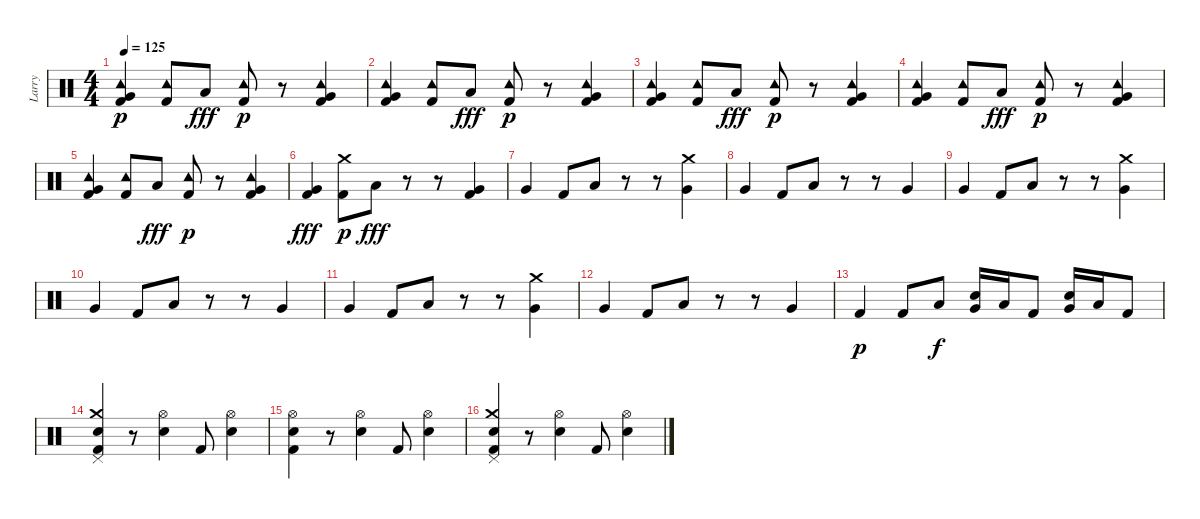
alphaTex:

\track ("Larry" "Larry") {instrument percussion}
\staff {score}
\articulation defaults
\ts (4 4)
\tempo 125
\clef neutral
\ks c
("Kick (hit) 2" "Very Low Tom (hit)" "Tambourine (hit)").4{dy p} ("Kick (hit) 2" "Tambourine (hit)").8 "Low Tom (hit)".8{dy fff} ("Kick (hit) 2" "Tambourine (hit)").8{dy p} r.8 ("Kick (hit) 2" "Very Low Tom (hit)" "Tambourine (hit)").4 |
("Kick (hit) 2" "Very Low Tom (hit)" "Tambourine (hit)").4 ("Kick (hit) 2" "Tambourine (hit)").8 "Low Tom (hit)".8{dy fff} ("Kick (hit) 2" "Tambourine (hit)").8{dy p} r.8 ("Kick (hit) 2" "Very Low Tom (hit)" "Tambourine (hit)").4 |
("Kick (hit) 2" "Very Low Tom (hit)" "Tambourine (hit)").4 ("Kick (hit) 2" "Tambourine (hit)").8 "Low Tom (hit)".8{dy fff} ("Kick (hit) 2" "Tambourine (hit)").8{dy p} r.8 ("Kick (hit) 2" "Very Low Tom (hit)" "Tambourine (hit)").4 |
("Kick (hit) 2" "Very Low Tom (hit)" "Tambourine (hit)").4 ("Kick (hit) 2" "Tambourine (hit)").8 "Low Tom (hit)".8{dy fff} ("Kick (hit) 2" "Tambourine (hit)").8{dy p} r.8 ("Kick (hit) 2" "Very Low Tom (hit)" "Tambourine (hit)").4 |
("Kick (hit) 2" "Very Low Tom (hit)" "Tambourine (hit)").4 ("Kick (hit) 2" "Tambourine (hit)").8 "Low Tom (hit)".8{dy fff} ("Kick (hit) 2" "Tambourine (hit)").8{dy p} r.8 ("Kick (hit) 2" "Very Low Tom (hit)" "Tambourine (hit)").4 |
("Kick (hit) 2" "Very Low Tom (hit)").4{dy fff} ("Crash medium (hit)" "Kick (hit) 2").8{dy p} "Low Tom (hit)".8{dy fff} r.8 r.8 ("Kick (hit) 2" "Very Low Tom (hit)").4 |
"Very Low Tom (hit)".4 "Kick (hit) 2".8 "Low Tom (hit)".8 r.8 r.8 ("Crash medium (hit)" "Very Low Tom (hit)").4 |
"Very Low Tom (hit)".4 "Kick (hit) 2".8 "Low Tom (hit)".8 r.8 r.8 "Very Low Tom (hit)".4 |
"Very Low Tom (hit)".4 "Kick (hit) 2".8 "Low Tom (hit)".8 r.8 r.8 ("Crash medium (hit)" "Very Low Tom (hit)").4 |
"Very Low Tom (hit)".4 "Kick (hit) 2".8 "Low Tom (hit)".8 r.8 r.8 "Very Low Tom (hit)".4 |
"Very Low Tom (hit)".4 "Kick (hit) 2".8 "Low Tom (hit)".8 r.8 r.8 ("Crash medium (hit)" "Very Low Tom (hit)").4 |
"Very Low Tom (hit)".4 "Kick (hit) 2".8 "Low Tom (hit)".8 r.8 r.8 "Very Low Tom (hit)".4 |
"Kick (hit) 2".4{dy p} "Kick (hit) 2".8 "Low Tom (hit)".8{dy f} ("Very Low Tom (hit)" "Electric Snare (hit)").16 "Low Tom (hit)".16 "Kick (hit) 2".8 ("Very Low Tom (hit)" "Electric Snare (hit)").16 "Low Tom (hit)".16 "Kick (hit) 2".8 |
("Crash medium (hit)" "Electric Snare (hit)" "Kick (hit) 2" "Pedal Hi-Hat (hit)").4 r.8 ("Hi-Hat (open)" "Electric Snare (hit)").4 "Kick (hit) 2".8 ("Hi-Hat (open)" "Electric Snare (hit)").4 |
("Hi-Hat (open)" "Electric Snare (hit)" "Kick (hit) 2").4 r.8 ("Hi-Hat (open)" "Electric Snare (hit)").4 "Kick (hit) 2".8 ("Hi-Hat (open)" "Electric Snare (hit)").4 |
("Crash medium (hit)" "Electric Snare (hit)" "Kick (hit) 2" "Pedal Hi-Hat (hit)").4 r.8 ("Hi-Hat (open)" "Electric Snare (hit)").4 "Kick (hit) 2".8 ("Hi-Hat (open)" "Electric Snare (hit)").4
